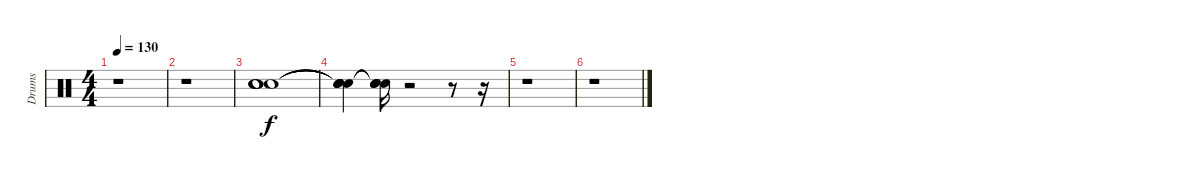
\track ("Drums" "Drums") {instrument percussion}
\staff {score}
\articulation defaults
\ts (4 4)
\tempo 130
\clef neutral
\ks c
r.1{dy f} |
r.1 |
("Snare (hit)"{t} "Snare (hit)"{t} "Snare (hit)"{t} "Snare (hit)"{t}).1 |
("Snare (hit)"{t} "Snare (hit)"{t} "Snare (hit)"{t} "Snare (hit)"{t}).4 ("Snare (hit)"{t} "Snare (hit)"{t} "Snare (hit)"{t} "Snare (hit)"{t}).16 r.2 r.8 r.16 |
r.1 |
r.1
